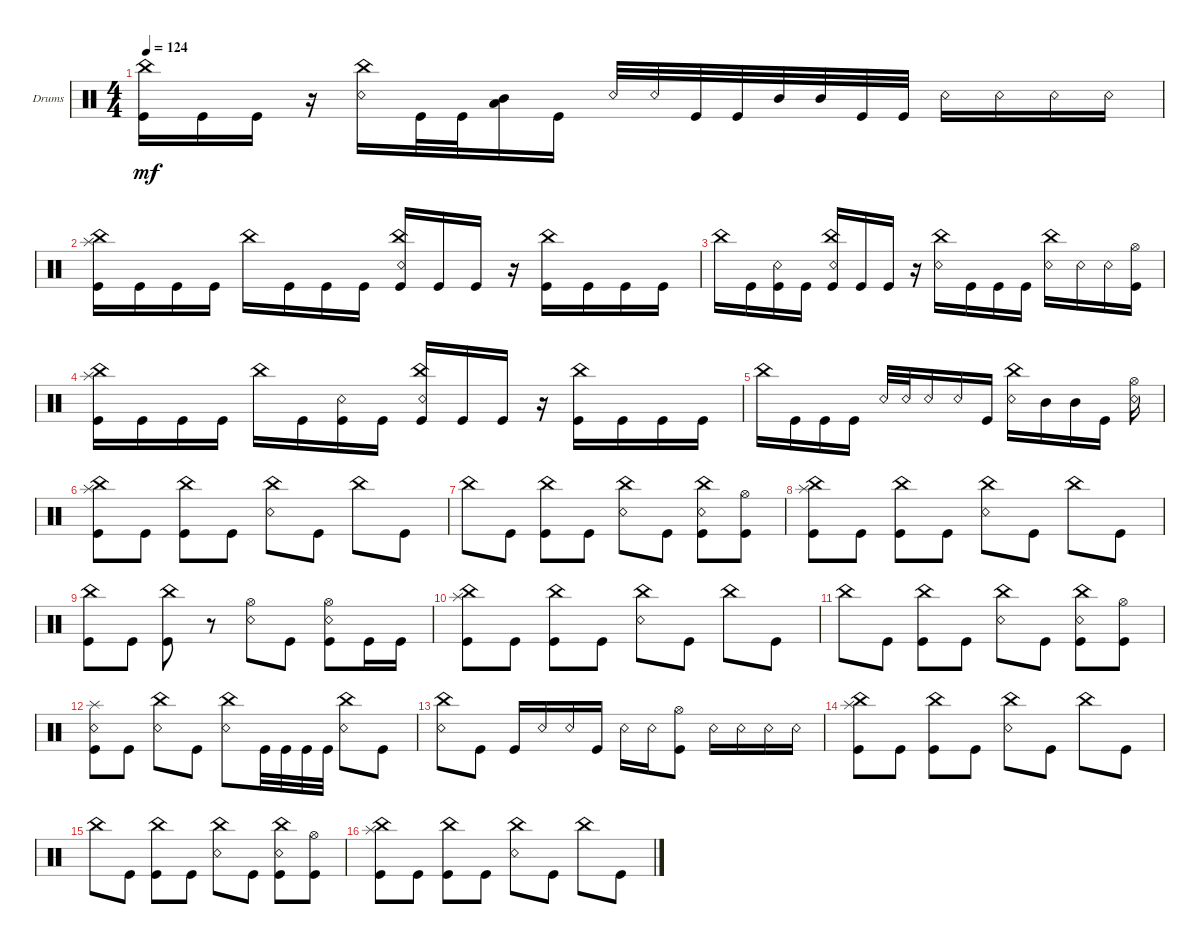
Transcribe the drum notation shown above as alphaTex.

\defaultSystemsLayout 4
\bracketExtendMode groupsimilarinstruments
\firstSystemTrackNameOrientation horizontal
\otherSystemsTrackNameOrientation horizontal
\track ("Drums" "Drums") {instrument percussion}
\staff {score}
\articulation defaults
\ts (4 4)
\tempo 124
\clef neutral
\ks c
("Kick (hit)" "China (hit)").16{dy mf} "Kick (hit)".16 "Kick (hit)".16 r.16 ("China (hit)" "Snare (rim shot)").16 "Kick (hit)".32 "Kick (hit)".32 ("Mid Tom (hit)" "Low Tom (hit)").16 "Kick (hit)".16 "Snare (rim shot)".32 "Snare (rim shot)".32 "Kick (hit)".32 "Kick (hit)".32 "Mid Tom (hit)".32 "Mid Tom (hit)".32 "Kick (hit)".32 "Kick (hit)".32 "Snare (rim shot)".16 "Snare (rim shot)".16 "Snare (rim shot)".16 "Snare (rim shot)".16 |
("Kick (hit)" "China (hit)" "Splash (hit)").16 "Kick (hit)".16 "Kick (hit)".16 "Kick (hit)".16 "China (hit)".16 "Kick (hit)".16 "Kick (hit)".16 "Kick (hit)".16 ("Kick (hit)" "China (hit)" "Snare (rim shot)").16 "Kick (hit)".16 "Kick (hit)".16 r.16 ("Kick (hit)" "China (hit)").16 "Kick (hit)".16 "Kick (hit)".16 "Kick (hit)".16 |
"China (hit)".16 "Kick (hit)".16 ("Kick (hit)" "Snare (rim shot)").16 "Kick (hit)".16 ("Kick (hit)" "China (hit)" "Snare (rim shot)").16 "Kick (hit)".16 "Kick (hit)".16 r.16 ("China (hit)" "Snare (rim shot)").16 "Kick (hit)".16 "Kick (hit)".16 "Kick (hit)".16 ("China (hit)" "Snare (rim shot)").16 "Snare (rim shot)".16 "Snare (rim shot)".16 ("Kick (hit)" "Hi-Hat (open)").16 |
("Kick (hit)" "China (hit)" "Splash (hit)").16 "Kick (hit)".16 "Kick (hit)".16 "Kick (hit)".16 "China (hit)".16 "Kick (hit)".16 ("Kick (hit)" "Snare (rim shot)").16 "Kick (hit)".16 ("Kick (hit)" "China (hit)" "Snare (rim shot)").16 "Kick (hit)".16 "Kick (hit)".16 r.16 ("Kick (hit)" "China (hit)").16 "Kick (hit)".16 "Kick (hit)".16 "Kick (hit)".16 |
"China (hit)".16 "Kick (hit)".16 "Kick (hit)".16 "Kick (hit)".16 "Snare (rim shot)".32 "Snare (rim shot)".32 "Snare (rim shot)".16 "Snare (rim shot)".16 "Kick (hit)".16 ("China (hit)" "Snare (rim shot)").16 "Mid Tom (hit)".16 "Mid Tom (hit)".16 "Kick (hit)".16 ("Snare (rim shot)" "Hi-Hat (open)").16 |
("Kick (hit)" "China (hit)" "Splash (hit)").8 "Kick (hit)".8 ("Kick (hit)" "China (hit)").8 "Kick (hit)".8 ("Snare (rim shot)" "China (hit)").8 "Kick (hit)".8 "China (hit)".8 "Kick (hit)".8 |
"China (hit)".8 "Kick (hit)".8 ("Kick (hit)" "China (hit)").8 "Kick (hit)".8 ("Snare (rim shot)" "China (hit)").8 "Kick (hit)".8 ("Kick (hit)" "China (hit)" "Snare (rim shot)").8 ("Kick (hit)" "Hi-Hat (open)").8 |
("Kick (hit)" "China (hit)" "Splash (hit)").8 "Kick (hit)".8 ("Kick (hit)" "China (hit)").8 "Kick (hit)".8 ("Snare (rim shot)" "China (hit)").8 "Kick (hit)".8 "China (hit)".8 "Kick (hit)".8 |
("Kick (hit)" "China (hit)").8 "Kick (hit)".8 ("Kick (hit)" "China (hit)").8 r.8 ("Snare (rim shot)" "Hi-Hat (open)").8 "Kick (hit)".8 ("Kick (hit)" "Snare (rim shot)" "Hi-Hat (open)").8 "Kick (hit)".16 "Kick (hit)".16 |
("Kick (hit)" "China (hit)" "Splash (hit)").8 "Kick (hit)".8 ("Kick (hit)" "China (hit)").8 "Kick (hit)".8 ("Snare (rim shot)" "China (hit)").8 "Kick (hit)".8 "China (hit)".8 "Kick (hit)".8 |
"China (hit)".8 "Kick (hit)".8 ("Kick (hit)" "China (hit)").8 "Kick (hit)".8 ("Snare (rim shot)" "China (hit)").8 "Kick (hit)".8 ("Kick (hit)" "China (hit)" "Snare (rim shot)").8 ("Kick (hit)" "Hi-Hat (open)").8 |
("Snare (rim shot)" "Kick (hit)" "Splash (hit)").8 "Kick (hit)".8 ("Snare (rim shot)" "China (hit)").8 "Kick (hit)".8 ("Snare (rim shot)" "China (hit)").8 "Kick (hit)".32 "Kick (hit)".32 "Kick (hit)".32 "Kick (hit)".32 ("Snare (rim shot)" "China (hit)").8 "Kick (hit)".8 |
("Snare (rim shot)" "China (hit)").8 "Kick (hit)".8 "Kick (hit)".16 "Snare (rim shot)".16 "Snare (rim shot)".16 "Kick (hit)".16 "Snare (rim shot)".16 "Snare (rim shot)".16 ("Kick (hit)" "Hi-Hat (open)").8 "Snare (rim shot)".16 "Snare (rim shot)".16 "Snare (rim shot)".16 "Snare (rim shot)".16 |
("Kick (hit)" "China (hit)" "Splash (hit)").8 "Kick (hit)".8 ("Kick (hit)" "China (hit)").8 "Kick (hit)".8 ("Snare (rim shot)" "China (hit)").8 "Kick (hit)".8 "China (hit)".8 "Kick (hit)".8 |
"China (hit)".8 "Kick (hit)".8 ("Kick (hit)" "China (hit)").8 "Kick (hit)".8 ("Snare (rim shot)" "China (hit)").8 "Kick (hit)".8 ("Kick (hit)" "China (hit)" "Snare (rim shot)").8 ("Kick (hit)" "Hi-Hat (open)").8 |
("Kick (hit)" "China (hit)" "Splash (hit)").8 "Kick (hit)".8 ("Kick (hit)" "China (hit)").8 "Kick (hit)".8 ("Snare (rim shot)" "China (hit)").8 "Kick (hit)".8 "China (hit)".8 "Kick (hit)".8
